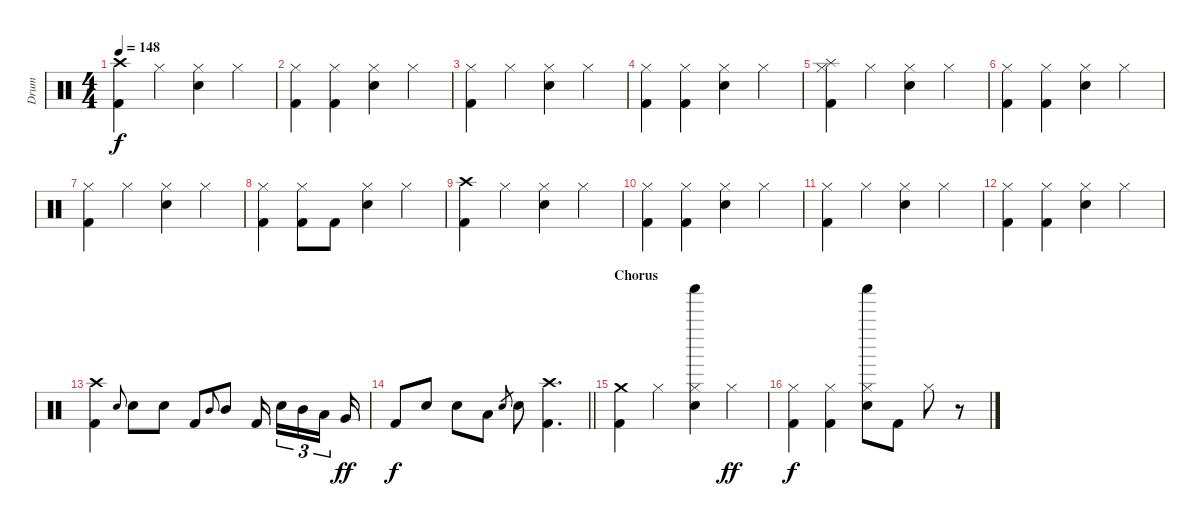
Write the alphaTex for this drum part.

\track ("Drum" "Drum") {instrument percussion}
\staff {score}
\articulation defaults
\ts (4 4)
\tempo 148
\clef neutral
\ks c
("Crash high (hit)" "Kick (hit) 2").4{dy f} "Hi-Hat (closed)".4 ("Electric Snare (hit)" "Hi-Hat (closed)").4 "Hi-Hat (closed)".4 |
("Kick (hit) 2" "Hi-Hat (closed)").4 ("Kick (hit) 2" "Hi-Hat (closed)").4 ("Electric Snare (hit)" "Hi-Hat (closed)").4 "Hi-Hat (closed)".4 |
("Kick (hit) 2" "Hi-Hat (closed)").4 "Hi-Hat (closed)".4 ("Electric Snare (hit)" "Hi-Hat (closed)").4 "Hi-Hat (closed)".4 |
("Kick (hit) 2" "Hi-Hat (closed)").4 ("Kick (hit) 2" "Hi-Hat (closed)").4 ("Electric Snare (hit)" "Hi-Hat (closed)").4 "Hi-Hat (closed)".4 |
("Splash (hit)" "Kick (hit) 2" "Hi-Hat (closed)").4 "Hi-Hat (closed)".4 ("Electric Snare (hit)" "Hi-Hat (closed)").4 "Hi-Hat (closed)".4 |
("Kick (hit) 2" "Hi-Hat (closed)").4 ("Kick (hit) 2" "Hi-Hat (closed)").4 ("Electric Snare (hit)" "Hi-Hat (closed)").4 "Hi-Hat (closed)".4 |
("Kick (hit) 2" "Hi-Hat (closed)").4 "Hi-Hat (closed)".4 ("Electric Snare (hit)" "Hi-Hat (closed)").4 "Hi-Hat (closed)".4 |
("Kick (hit) 2" "Hi-Hat (closed)").4 ("Kick (hit) 2" "Hi-Hat (closed)").8 "Kick (hit) 2".8 ("Electric Snare (hit)" "Hi-Hat (closed)").4 "Hi-Hat (closed)".4 |
("Crash high (hit)" "Kick (hit) 2").4 "Hi-Hat (closed)".4 ("Electric Snare (hit)" "Hi-Hat (closed)").4 "Hi-Hat (closed)".4 |
("Kick (hit) 2" "Hi-Hat (closed)").4 ("Kick (hit) 2" "Hi-Hat (closed)").4 ("Electric Snare (hit)" "Hi-Hat (closed)").4 "Hi-Hat (closed)".4 |
("Kick (hit) 2" "Hi-Hat (closed)").4 "Hi-Hat (closed)".4 ("Electric Snare (hit)" "Hi-Hat (closed)").4 "Hi-Hat (closed)".4 |
("Kick (hit) 2" "Hi-Hat (closed)").4 ("Kick (hit) 2" "Hi-Hat (closed)").4 ("Electric Snare (hit)" "Hi-Hat (closed)").4 "Hi-Hat (closed)".4 |
("Crash high (hit)" "Kick (hit) 2").4 "Electric Snare (hit)".8{gr onbeat} "Electric Snare (hit)".8 "Electric Snare (hit)".8 "Kick (hit) 2".8 "Mid Tom (hit)".8{gr onbeat} "Mid Tom (hit)".8 "Kick (hit) 2".16{beam splitsecondary} "Electric Snare (hit)".16{tu (3 2)} "Mid Tom (hit)".16{tu (3 2)} "Low Tom (hit)".16{tu (3 2) beam splitsecondary} "Very Low Tom (hit)".16{dy ff} |
\barLineRight lightlight "Kick (hit) 2".8{dy f} "Electric Snare (hit)".8 "Electric Snare (hit)".8 "Low Tom (hit)".8 "Electric Snare (hit)".8{gr} "Electric Snare (hit)".8
("Crash high (hit)" "Kick (hit) 2").4{d} |
\section ("" "Chorus")
("Crash medium (hit)" "Kick (hit) 2").4 "Hi-Hat (closed)".4 ("Shaker (hit)" "Electric Snare (hit)" "Hi-Hat (closed)").4 "Hi-Hat (closed)".4{dy ff} |
("Kick (hit) 2" "Hi-Hat (closed)").4{dy f} ("Kick (hit) 2" "Hi-Hat (closed)").4 ("Shaker (hit)" "Electric Snare (hit)" "Hi-Hat (closed)").8 "Kick (hit) 2".8 "Hi-Hat (closed)".8 r.8
